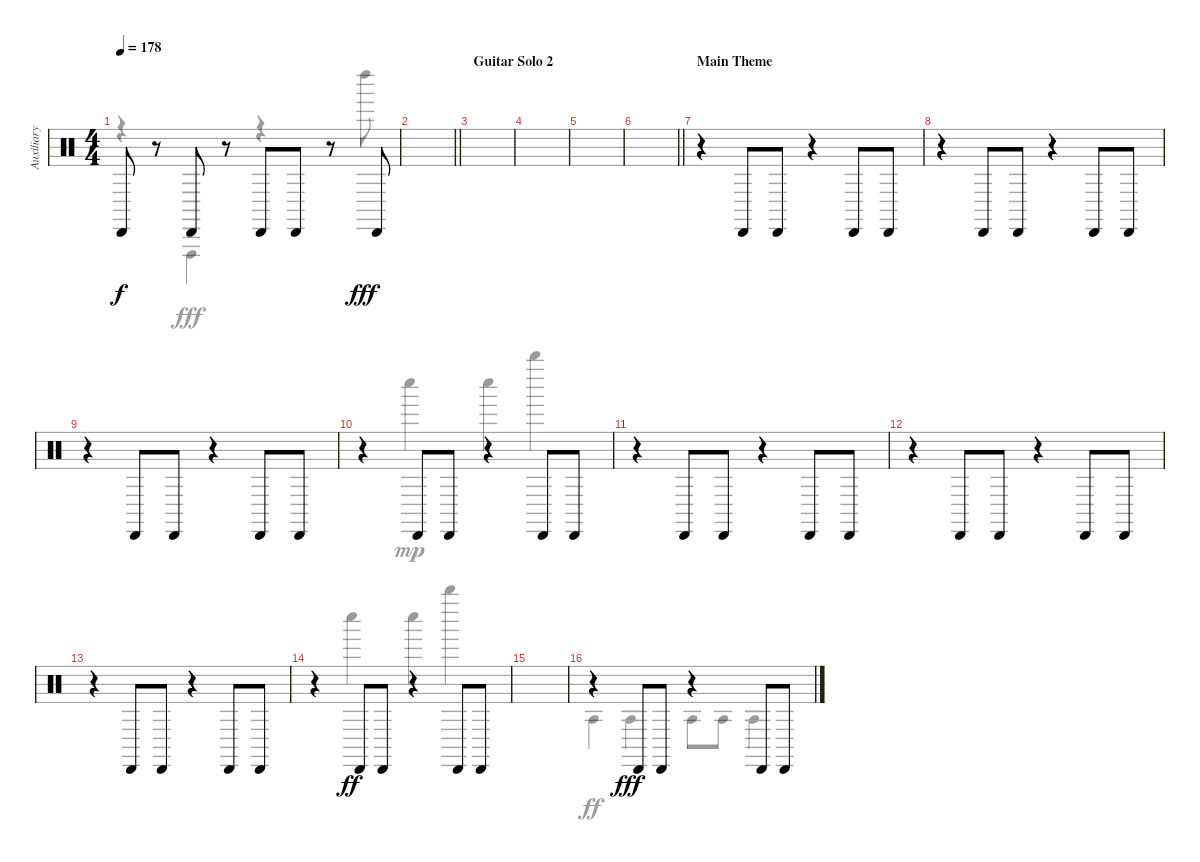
\track ("Auxiliary Percussion" "Auxiliary ") {instrument percussion}
\staff {score}
\articulation defaults
\voice
\ts (4 4)
\tempo 178
\clef neutral
\ks c "Cabasa (hit)".8{dy f}
r.8 "Cabasa (hit)".8 r.8 "Cabasa (hit)".8 "Cabasa (hit)".8 r.8 "Cabasa (hit)".8{dy fff} |
\barLineRight lightlight
|
\section ("" "Guitar Solo 2")
|
|
|
\barLineRight lightlight
|
\section ("" "Main Theme")
r.4 "Cabasa (hit)".8 "Cabasa (hit)".8 r.4 "Cabasa (hit)".8 "Cabasa (hit)".8 |
r.4 "Cabasa (hit)".8 "Cabasa (hit)".8 r.4 "Cabasa (hit)".8 "Cabasa (hit)".8 |
r.4 "Cabasa (hit)".8 "Cabasa (hit)".8 r.4 "Cabasa (hit)".8 "Cabasa (hit)".8 |
r.4 "Cabasa (hit)".8 "Cabasa (hit)".8 r.4 "Cabasa (hit)".8 "Cabasa (hit)".8 |
r.4 "Cabasa (hit)".8 "Cabasa (hit)".8 r.4 "Cabasa (hit)".8 "Cabasa (hit)".8 |
r.4 "Cabasa (hit)".8 "Cabasa (hit)".8 r.4 "Cabasa (hit)".8 "Cabasa (hit)".8 |
r.4 "Cabasa (hit)".8 "Cabasa (hit)".8 r.4 "Cabasa (hit)".8 "Cabasa (hit)".8 |
r.4 "Cabasa (hit)".8{dy ff} "Cabasa (hit)".8 r.4 "Cabasa (hit)".8 "Cabasa (hit)".8 |
|
r.4 "Cabasa (hit)".8{dy fff} "Cabasa (hit)".8 r.4 "Cabasa (hit)".8 "Cabasa (hit)".8
\voice
\clef neutral
\ottava regular
\simile none
\ks c
r.4{dy fff} "Vibraslap (hit)".4 r.4 r.8 "Left Maraca (hit)".8 |
\barLineRight lightlight
|
|
|
|
\barLineRight lightlight
|
|
|
|
r.4 "Whistle low (hit)".4{dy mp} "Whistle low (hit)".4 "Whistle high (hit)".4 |
|
|
|
r.4 "Whistle low (hit)".4 "Whistle low (hit)".4 "Whistle high (hit)".4 |
|
"Agogo tow (hit)".4{dy ff} "Agogo tow (hit)".4 "Agogo tow (hit)".8 "Agogo tow (hit)".8 "Agogo tow (hit)".4
